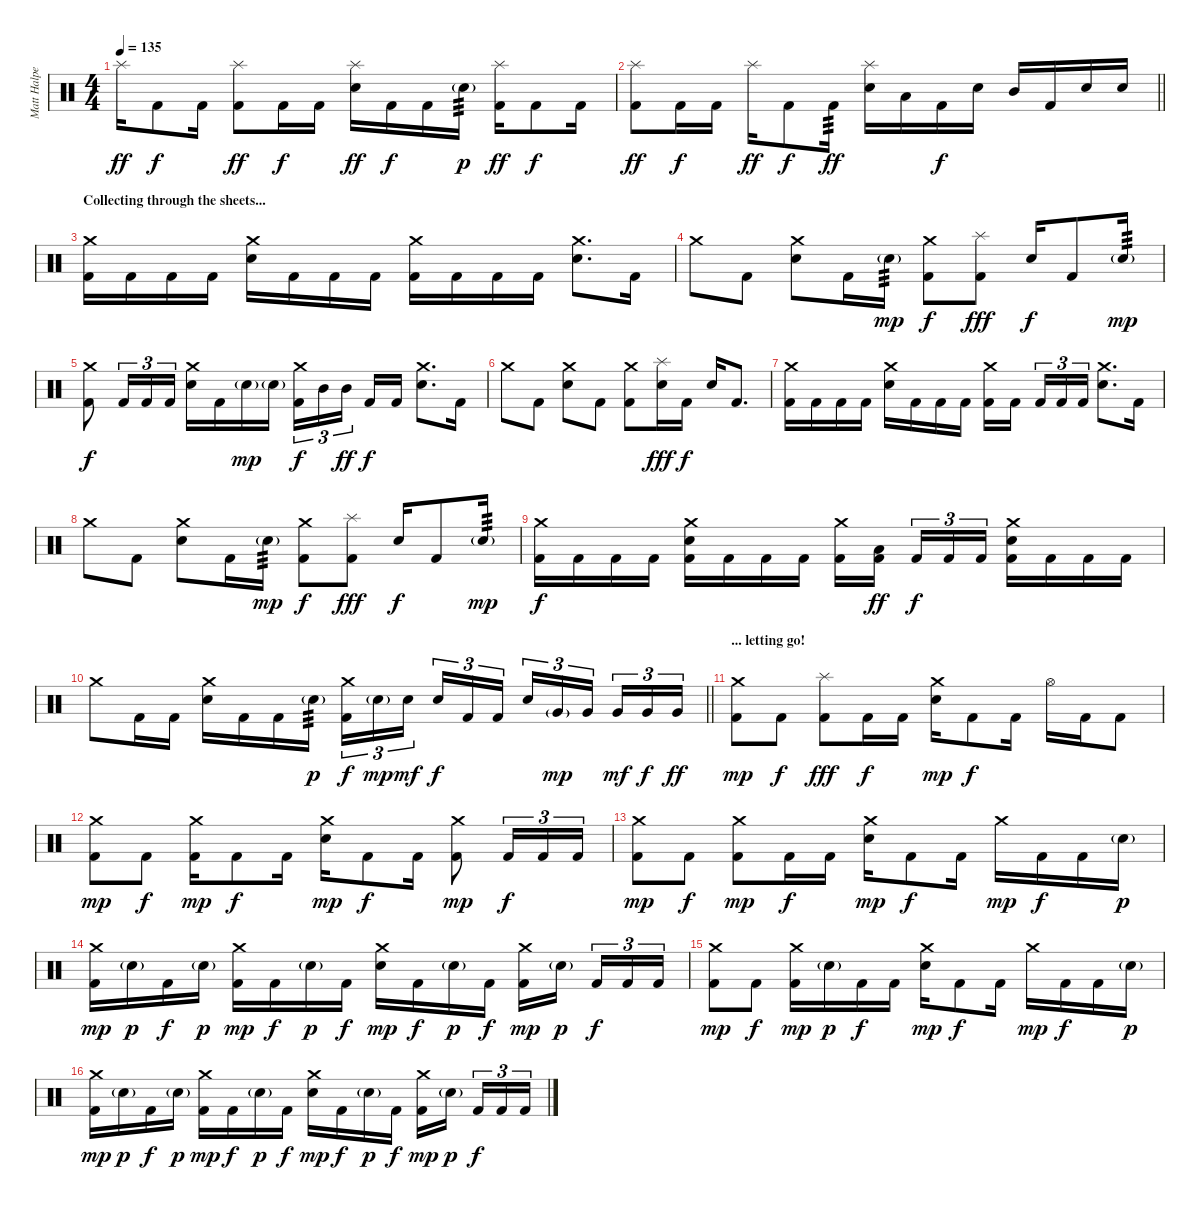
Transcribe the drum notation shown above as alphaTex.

\track ("Matt Halpern - Drums" "Matt Halpe") {instrument percussion}
\staff {score}
\articulation defaults
\ts (4 4)
\tempo 135
\clef neutral
\ks c "Splash (hit)".16{dy ff} "Kick (hit) 2".8{dy f} "Kick (hit) 2".16
("Splash (hit)" "Kick (hit) 2").8{dy ff} "Kick (hit) 2".16{dy f} "Kick (hit) 2".16 ("Splash (hit)" "Electric Snare (hit)").16{dy ff} "Kick (hit) 2".16{dy f} "Kick (hit) 2".16 "Electric Snare (hit)"{g}.16{tp 3 dy p} ("Splash (hit)" "Kick (hit) 2").16{dy ff} "Kick (hit) 2".8{dy f} "Kick (hit) 2".16 |
\barLineRight lightlight
("Splash (hit)" "Kick (hit) 2").8{dy ff} "Kick (hit) 2".16{dy f} "Kick (hit) 2".16 "Splash (hit)".16{dy ff} "Kick (hit) 2".8{dy f} "Kick (hit) 2".16{tp 3 dy ff} ("Splash (hit)" "Electric Snare (hit)").16 "Low Tom (hit)".16 "Kick (hit) 2".16{dy f} "Electric Snare (hit)".16 "Mid Tom (hit)".16 "Kick (hit) 2".16 "Electric Snare (hit)".16 "Electric Snare (hit)".16 |
\section ("" "Collecting through the sheets...")
("Crash medium (hit)" "Kick (hit) 2").16 "Kick (hit) 2".16 "Kick (hit) 2".16 "Kick (hit) 2".16 ("Crash medium (hit)" "Electric Snare (hit)").16 "Kick (hit) 2".16 "Kick (hit) 2".16 "Kick (hit) 2".16 ("Crash medium (hit)" "Kick (hit) 2").16 "Kick (hit) 2".16 "Kick (hit) 2".16 "Kick (hit) 2".16 ("Crash medium (hit)" "Electric Snare (hit)").8{d} "Kick (hit) 2".16 |
"Crash medium (hit)".8 "Kick (hit) 2".8 ("Crash medium (hit)" "Electric Snare (hit)").8 "Kick (hit) 2".16 "Electric Snare (hit)"{g}.16{tp 3 dy mp} ("Crash medium (hit)" "Kick (hit) 2").8{dy f} ("Splash (hit)" "Kick (hit) 2").8{dy fff} "Electric Snare (hit)".16{dy f} "Kick (hit) 2".8 "Electric Snare (hit)"{g}.16{tp 3 dy mp} |
("Crash medium (hit)" "Kick (hit) 2").8{dy f} "Kick (hit) 2".16{tu (3 2)} "Kick (hit) 2".16{tu (3 2)} "Kick (hit) 2".16{tu (3 2)} ("Crash medium (hit)" "Electric Snare (hit)").16 "Kick (hit) 2".16 "Electric Snare (hit)"{g}.16{dy mp} "Electric Snare (hit)"{g}.16 ("Crash medium (hit)" "Kick (hit) 2").16{tu (3 2) dy f} "Mid Tom (hit)".16{tu (3 2)} "Mid Tom (hit)".16{tu (3 2) dy ff beam splitsecondary} "Kick (hit) 2".16{dy f} "Kick (hit) 2".16 ("Crash medium (hit)" "Electric Snare (hit)").8{d} "Kick (hit) 2".16 |
"Crash medium (hit)".8 "Kick (hit) 2".8 ("Crash medium (hit)" "Electric Snare (hit)").8 "Kick (hit) 2".8 ("Crash medium (hit)" "Kick (hit) 2").8 ("Splash (hit)" "Electric Snare (hit)").16{dy fff} "Kick (hit) 2".16{dy f} "Electric Snare (hit)".16 "Kick (hit) 2".8{d} |
("Crash medium (hit)" "Kick (hit) 2").16 "Kick (hit) 2".16 "Kick (hit) 2".16 "Kick (hit) 2".16 ("Crash medium (hit)" "Electric Snare (hit)").16 "Kick (hit) 2".16 "Kick (hit) 2".16 "Kick (hit) 2".16 ("Crash medium (hit)" "Kick (hit) 2").16 "Kick (hit) 2".16{beam splitsecondary} "Kick (hit) 2".16{tu (3 2)} "Kick (hit) 2".16{tu (3 2)} "Kick (hit) 2".16{tu (3 2)} ("Crash medium (hit)" "Electric Snare (hit)").8{d} "Kick (hit) 2".16 |
"Crash medium (hit)".8 "Kick (hit) 2".8 ("Crash medium (hit)" "Electric Snare (hit)").8 "Kick (hit) 2".16 "Electric Snare (hit)"{g}.16{tp 3 dy mp} ("Crash medium (hit)" "Kick (hit) 2").8{dy f} ("Splash (hit)" "Kick (hit) 2").8{dy fff} "Electric Snare (hit)".16{dy f} "Kick (hit) 2".8 "Electric Snare (hit)"{g}.16{tp 3 dy mp} |
("Crash medium (hit)" "Kick (hit) 2").16{dy f} "Kick (hit) 2".16 "Kick (hit) 2".16 "Kick (hit) 2".16 ("Crash medium (hit)" "Electric Snare (hit)" "Kick (hit) 2").16 "Kick (hit) 2".16 "Kick (hit) 2".16 "Kick (hit) 2".16 ("Crash medium (hit)" "Kick (hit) 2").16 ("Low Tom (hit)" "Kick (hit) 2").16{dy ff beam splitsecondary} "Kick (hit) 2".16{tu (3 2) dy f} "Kick (hit) 2".16{tu (3 2)} "Kick (hit) 2".16{tu (3 2)} ("Crash medium (hit)" "Electric Snare (hit)" "Kick (hit) 2").16 "Kick (hit) 2".16 "Kick (hit) 2".16 "Kick (hit) 2".16 |
\barLineRight lightlight "Crash medium (hit)".8 "Kick (hit) 2".16 "Kick (hit) 2".16
("Crash medium (hit)" "Electric Snare (hit)").16 "Kick (hit) 2".16 "Kick (hit) 2".16 "Electric Snare (hit)"{g}.16{tp 3 dy p} ("Crash medium (hit)" "Kick (hit) 2").16{tu (3 2) dy f} "Electric Snare (hit)"{g}.16{tu (3 2) dy mp} "Electric Snare (hit)".16{tu (3 2) dy mf beam splitsecondary} "Electric Snare (hit)".16{tu (3 2) dy f} "Kick (hit) 2".16{tu (3 2)} "Kick (hit) 2".16{tu (3 2)} "Electric Snare (hit)".16{tu (3 2)} "Very Low Tom (hit)"{g}.16{tu (3 2) dy mp} "Very Low Tom (hit)".16{tu (3 2) beam splitsecondary} "Very Low Tom (hit)".16{tu (3 2) dy mf} "Very Low Tom (hit)".16{tu (3 2) dy f} "Very Low Tom (hit)".16{tu (3 2) dy ff} |
\section ("" "... letting go!")
("Crash medium (hit)" "Kick (hit) 2").8{dy mp} "Kick (hit) 2".8{dy f} ("Splash (hit)" "Kick (hit) 2").8{dy fff} "Kick (hit) 2".16{dy f} "Kick (hit) 2".16 ("Crash medium (hit)" "Electric Snare (hit)").16{dy mp} "Kick (hit) 2".8{dy f} "Kick (hit) 2".16 "Hi-Hat (open)".16 "Kick (hit) 2".16 "Kick (hit) 2".8 |
("Crash medium (hit)" "Kick (hit) 2").8{dy mp} "Kick (hit) 2".8{dy f} ("Crash medium (hit)" "Kick (hit) 2").16{dy mp} "Kick (hit) 2".8{dy f} "Kick (hit) 2".16 ("Crash medium (hit)" "Electric Snare (hit)").16{dy mp} "Kick (hit) 2".8{dy f} "Kick (hit) 2".16 ("Crash medium (hit)" "Kick (hit) 2").8{dy mp} "Kick (hit) 2".16{tu (3 2) dy f} "Kick (hit) 2".16{tu (3 2)} "Kick (hit) 2".16{tu (3 2)} |
("Crash medium (hit)" "Kick (hit) 2").8{dy mp} "Kick (hit) 2".8{dy f} ("Crash medium (hit)" "Kick (hit) 2").8{dy mp} "Kick (hit) 2".16{dy f} "Kick (hit) 2".16 ("Crash medium (hit)" "Electric Snare (hit)").16{dy mp} "Kick (hit) 2".8{dy f} "Kick (hit) 2".16 "Crash medium (hit)".16{dy mp} "Kick (hit) 2".16{dy f} "Kick (hit) 2".16 "Electric Snare (hit)"{g}.16{dy p} |
("Crash medium (hit)" "Kick (hit) 2").16{dy mp} "Electric Snare (hit)"{g}.16{dy p} "Kick (hit) 2".16{dy f} "Electric Snare (hit)"{g}.16{dy p} ("Crash medium (hit)" "Kick (hit) 2").16{dy mp} "Kick (hit) 2".16{dy f} "Electric Snare (hit)"{g}.16{dy p} "Kick (hit) 2".16{dy f} ("Crash medium (hit)" "Electric Snare (hit)").16{dy mp} "Kick (hit) 2".16{dy f} "Electric Snare (hit)"{g}.16{dy p} "Kick (hit) 2".16{dy f} ("Crash medium (hit)" "Kick (hit) 2").16{dy mp} "Electric Snare (hit)"{g}.16{dy p beam splitsecondary} "Kick (hit) 2".16{tu (3 2) dy f} "Kick (hit) 2".16{tu (3 2)} "Kick (hit) 2".16{tu (3 2)} |
("Crash medium (hit)" "Kick (hit) 2").8{dy mp} "Kick (hit) 2".8{dy f} ("Crash medium (hit)" "Kick (hit) 2").16{dy mp} "Electric Snare (hit)"{g}.16{dy p} "Kick (hit) 2".16{dy f} "Kick (hit) 2".16 ("Crash medium (hit)" "Electric Snare (hit)").16{dy mp} "Kick (hit) 2".8{dy f} "Kick (hit) 2".16 "Crash medium (hit)".16{dy mp} "Kick (hit) 2".16{dy f} "Kick (hit) 2".16 "Electric Snare (hit)"{g}.16{dy p} |
("Crash medium (hit)" "Kick (hit) 2").16{dy mp} "Electric Snare (hit)"{g}.16{dy p} "Kick (hit) 2".16{dy f} "Electric Snare (hit)"{g}.16{dy p} ("Crash medium (hit)" "Kick (hit) 2").16{dy mp} "Kick (hit) 2".16{dy f} "Electric Snare (hit)"{g}.16{dy p} "Kick (hit) 2".16{dy f} ("Crash medium (hit)" "Electric Snare (hit)").16{dy mp} "Kick (hit) 2".16{dy f} "Electric Snare (hit)"{g}.16{dy p} "Kick (hit) 2".16{dy f} ("Crash medium (hit)" "Kick (hit) 2").16{dy mp} "Electric Snare (hit)"{g}.16{dy p beam splitsecondary} "Kick (hit) 2".16{tu (3 2) dy f} "Kick (hit) 2".16{tu (3 2)} "Kick (hit) 2".16{tu (3 2)}
